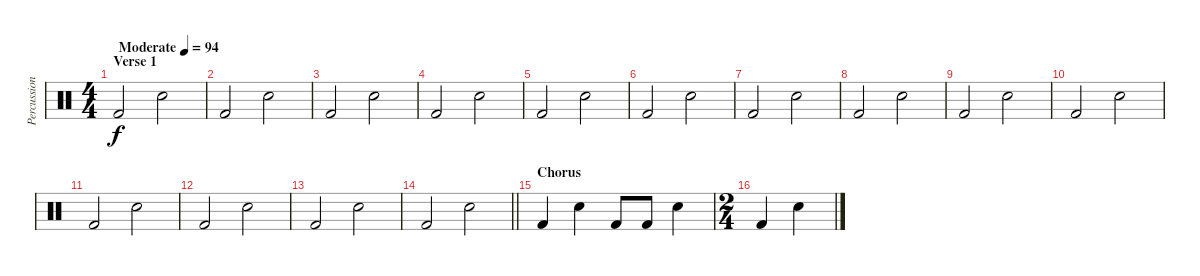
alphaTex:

\track ("Percussion" "Percussion") {instrument percussion}
\staff {score}
\articulation defaults
\ts (4 4)
\section ("" "Verse 1")
\tempo (94 "Moderate")
\clef neutral
\ks c "Kick (hit) 2".2{dy f} "Snare (hit) 2".2
|
"Kick (hit) 2".2 "Snare (hit) 2".2 |
"Kick (hit) 2".2 "Snare (hit) 2".2 |
"Kick (hit) 2".2 "Snare (hit) 2".2 |
"Kick (hit) 2".2 "Snare (hit) 2".2 |
"Kick (hit) 2".2 "Snare (hit) 2".2 |
"Kick (hit) 2".2 "Snare (hit) 2".2 |
"Kick (hit) 2".2 "Snare (hit) 2".2 |
"Kick (hit) 2".2 "Snare (hit) 2".2 |
"Kick (hit) 2".2 "Snare (hit) 2".2 |
"Kick (hit) 2".2 "Snare (hit) 2".2 |
"Kick (hit) 2".2 "Snare (hit) 2".2 |
"Kick (hit) 2".2 "Snare (hit) 2".2 |
\barLineRight lightlight "Kick (hit) 2".2 "Snare (hit) 2".2
|
\section ("" "Chorus")
"Kick (hit) 2".4 "Snare (hit) 2".4 "Kick (hit) 2".8 "Kick (hit) 2".8 "Snare (hit) 2".4 |
\ts (2 4)
"Kick (hit) 2".4 "Snare (hit) 2".4
